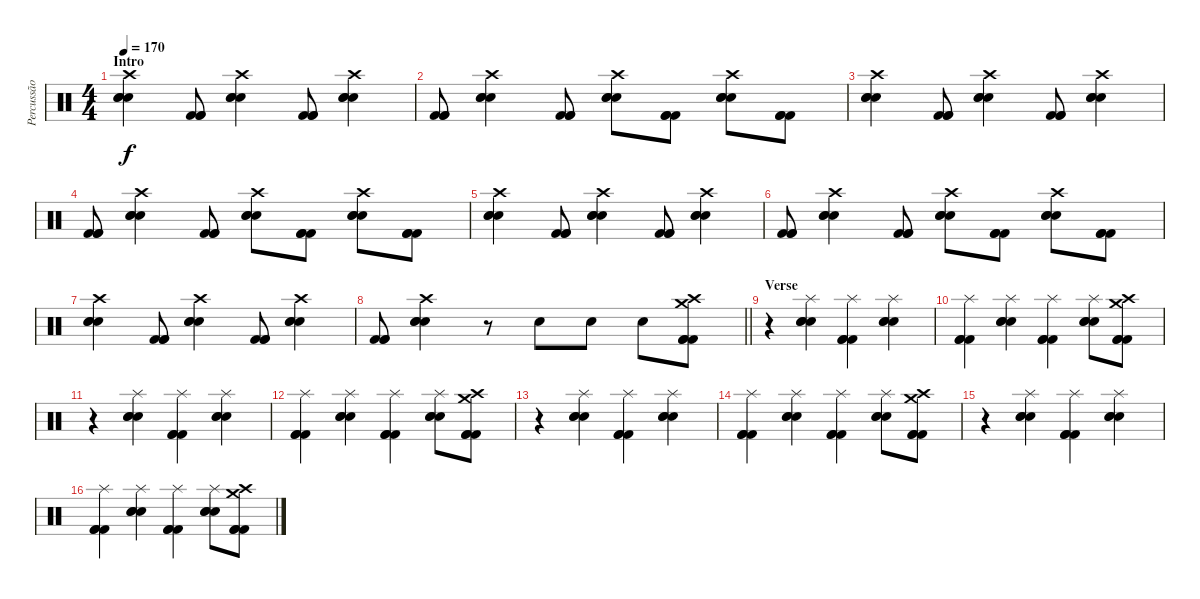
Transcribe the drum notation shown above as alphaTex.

\track ("Percussão" "Percussão") {instrument percussion}
\staff {score}
\articulation defaults
\ts (4 4)
\section ("" "Intro")
\tempo 170
\clef neutral
\ks c
("Crash high (hit)" "Electric Snare (hit)" "Electric Snare (hit)" "Electric Snare (hit)").4{dy f} ("Kick (hit) 2" "Kick (hit) 2" "Kick (hit) 2").8 ("Crash high (hit)" "Electric Snare (hit)" "Electric Snare (hit)" "Electric Snare (hit)").4 ("Kick (hit) 2" "Kick (hit) 2" "Kick (hit) 2").8 ("Crash high (hit)" "Electric Snare (hit)" "Electric Snare (hit)" "Electric Snare (hit)").4 |
("Kick (hit) 2" "Kick (hit) 2" "Kick (hit) 2").8 ("Crash high (hit)" "Electric Snare (hit)" "Electric Snare (hit)" "Electric Snare (hit)").4 ("Kick (hit) 2" "Kick (hit) 2" "Kick (hit) 2").8 ("Crash high (hit)" "Electric Snare (hit)" "Electric Snare (hit)" "Electric Snare (hit)").8 ("Kick (hit) 2" "Kick (hit) 2" "Kick (hit) 2").8 ("Crash high (hit)" "Electric Snare (hit)" "Electric Snare (hit)" "Electric Snare (hit)").8 ("Kick (hit) 2" "Kick (hit) 2" "Kick (hit) 2").8 |
("Crash high (hit)" "Electric Snare (hit)" "Electric Snare (hit)" "Electric Snare (hit)").4 ("Kick (hit) 2" "Kick (hit) 2" "Kick (hit) 2").8 ("Crash high (hit)" "Electric Snare (hit)" "Electric Snare (hit)" "Electric Snare (hit)").4 ("Kick (hit) 2" "Kick (hit) 2" "Kick (hit) 2").8 ("Crash high (hit)" "Electric Snare (hit)" "Electric Snare (hit)" "Electric Snare (hit)").4 |
("Kick (hit) 2" "Kick (hit) 2" "Kick (hit) 2").8 ("Crash high (hit)" "Electric Snare (hit)" "Electric Snare (hit)" "Electric Snare (hit)").4 ("Kick (hit) 2" "Kick (hit) 2" "Kick (hit) 2").8 ("Crash high (hit)" "Electric Snare (hit)" "Electric Snare (hit)" "Electric Snare (hit)").8 ("Kick (hit) 2" "Kick (hit) 2" "Kick (hit) 2").8 ("Crash high (hit)" "Electric Snare (hit)" "Electric Snare (hit)" "Electric Snare (hit)").8 ("Kick (hit) 2" "Kick (hit) 2" "Kick (hit) 2").8 |
("Crash high (hit)" "Electric Snare (hit)" "Electric Snare (hit)" "Electric Snare (hit)").4 ("Kick (hit) 2" "Kick (hit) 2" "Kick (hit) 2").8 ("Crash high (hit)" "Electric Snare (hit)" "Electric Snare (hit)" "Electric Snare (hit)").4 ("Kick (hit) 2" "Kick (hit) 2" "Kick (hit) 2").8 ("Crash high (hit)" "Electric Snare (hit)" "Electric Snare (hit)" "Electric Snare (hit)").4 |
("Kick (hit) 2" "Kick (hit) 2" "Kick (hit) 2").8 ("Crash high (hit)" "Electric Snare (hit)" "Electric Snare (hit)" "Electric Snare (hit)").4 ("Kick (hit) 2" "Kick (hit) 2" "Kick (hit) 2").8 ("Crash high (hit)" "Electric Snare (hit)" "Electric Snare (hit)" "Electric Snare (hit)").8 ("Kick (hit) 2" "Kick (hit) 2" "Kick (hit) 2").8 ("Crash high (hit)" "Electric Snare (hit)" "Electric Snare (hit)" "Electric Snare (hit)").8 ("Kick (hit) 2" "Kick (hit) 2" "Kick (hit) 2").8 |
("Crash high (hit)" "Electric Snare (hit)" "Electric Snare (hit)" "Electric Snare (hit)").4 ("Kick (hit) 2" "Kick (hit) 2" "Kick (hit) 2").8 ("Crash high (hit)" "Electric Snare (hit)" "Electric Snare (hit)" "Electric Snare (hit)").4 ("Kick (hit) 2" "Kick (hit) 2" "Kick (hit) 2").8 ("Crash high (hit)" "Electric Snare (hit)" "Electric Snare (hit)" "Electric Snare (hit)").4 |
\barLineRight lightlight
("Kick (hit) 2" "Kick (hit) 2" "Kick (hit) 2").8 ("Crash high (hit)" "Electric Snare (hit)" "Electric Snare (hit)" "Electric Snare (hit)").4 r.8 "Electric Snare (hit)".8 "Electric Snare (hit)".8 "Electric Snare (hit)".8 ("Crash high (hit)" "Crash medium (hit)" "Kick (hit) 2" "Kick (hit) 2" "Kick (hit) 2").8 |
\section ("" "Verse")
r.4 ("Splash (hit)" "Electric Snare (hit)" "Electric Snare (hit)" "Electric Snare (hit)").4 ("Splash (hit)" "Kick (hit) 2" "Kick (hit) 2" "Kick (hit) 2").4 ("Splash (hit)" "Electric Snare (hit)" "Electric Snare (hit)" "Electric Snare (hit)").4 |
("Splash (hit)" "Kick (hit) 2" "Kick (hit) 2" "Kick (hit) 2").4 ("Splash (hit)" "Electric Snare (hit)" "Electric Snare (hit)" "Electric Snare (hit)").4 ("Splash (hit)" "Kick (hit) 2" "Kick (hit) 2" "Kick (hit) 2").4 ("Splash (hit)" "Electric Snare (hit)" "Electric Snare (hit)" "Electric Snare (hit)").8 ("Crash high (hit)" "Crash medium (hit)" "Kick (hit) 2" "Kick (hit) 2" "Kick (hit) 2").8 |
r.4 ("Splash (hit)" "Electric Snare (hit)" "Electric Snare (hit)" "Electric Snare (hit)").4 ("Splash (hit)" "Kick (hit) 2" "Kick (hit) 2" "Kick (hit) 2").4 ("Splash (hit)" "Electric Snare (hit)" "Electric Snare (hit)" "Electric Snare (hit)").4 |
("Splash (hit)" "Kick (hit) 2" "Kick (hit) 2" "Kick (hit) 2").4 ("Splash (hit)" "Electric Snare (hit)" "Electric Snare (hit)" "Electric Snare (hit)").4 ("Splash (hit)" "Kick (hit) 2" "Kick (hit) 2" "Kick (hit) 2").4 ("Splash (hit)" "Electric Snare (hit)" "Electric Snare (hit)" "Electric Snare (hit)").8 ("Crash high (hit)" "Crash medium (hit)" "Kick (hit) 2" "Kick (hit) 2" "Kick (hit) 2").8 |
r.4 ("Splash (hit)" "Electric Snare (hit)" "Electric Snare (hit)" "Electric Snare (hit)").4 ("Splash (hit)" "Kick (hit) 2" "Kick (hit) 2" "Kick (hit) 2").4 ("Splash (hit)" "Electric Snare (hit)" "Electric Snare (hit)" "Electric Snare (hit)").4 |
("Splash (hit)" "Kick (hit) 2" "Kick (hit) 2" "Kick (hit) 2").4 ("Splash (hit)" "Electric Snare (hit)" "Electric Snare (hit)" "Electric Snare (hit)").4 ("Splash (hit)" "Kick (hit) 2" "Kick (hit) 2" "Kick (hit) 2").4 ("Splash (hit)" "Electric Snare (hit)" "Electric Snare (hit)" "Electric Snare (hit)").8 ("Crash high (hit)" "Crash medium (hit)" "Kick (hit) 2" "Kick (hit) 2" "Kick (hit) 2").8 |
r.4 ("Splash (hit)" "Electric Snare (hit)" "Electric Snare (hit)" "Electric Snare (hit)").4 ("Splash (hit)" "Kick (hit) 2" "Kick (hit) 2" "Kick (hit) 2").4 ("Splash (hit)" "Electric Snare (hit)" "Electric Snare (hit)" "Electric Snare (hit)").4 |
("Splash (hit)" "Kick (hit) 2" "Kick (hit) 2" "Kick (hit) 2").4 ("Splash (hit)" "Electric Snare (hit)" "Electric Snare (hit)" "Electric Snare (hit)").4 ("Splash (hit)" "Kick (hit) 2" "Kick (hit) 2" "Kick (hit) 2").4 ("Splash (hit)" "Electric Snare (hit)" "Electric Snare (hit)" "Electric Snare (hit)").8 ("Crash high (hit)" "Crash medium (hit)" "Kick (hit) 2" "Kick (hit) 2" "Kick (hit) 2").8
